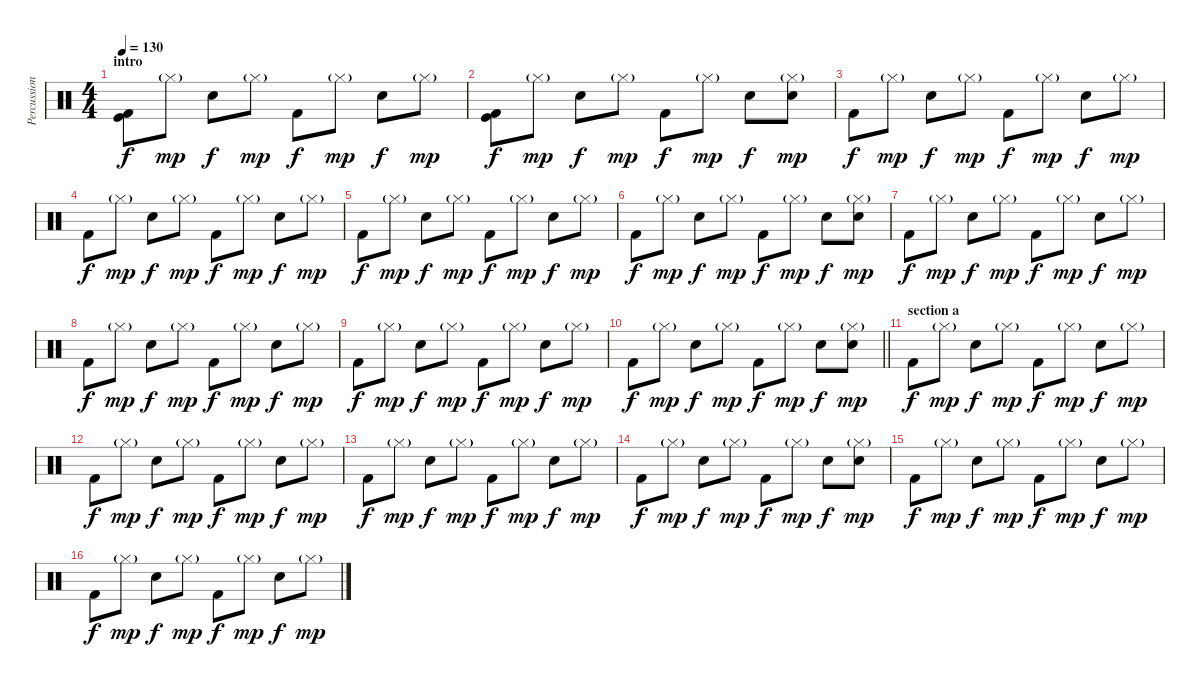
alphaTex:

\track ("Percussion" "Percussion") {instrument percussion}
\staff {score}
\articulation defaults
\ts (4 4)
\section ("" "intro")
\tempo 130
\clef neutral
\ks c
("Kick (hit)" "Kick (hit) 2").8{dy f} "Hi-Hat (closed)"{g}.8{dy mp} "Electric Snare (hit)".8{dy f} "Hi-Hat (closed)"{g}.8{dy mp} "Kick (hit) 2".8{dy f} "Hi-Hat (closed)"{g}.8{dy mp} "Electric Snare (hit)".8{dy f} "Hi-Hat (closed)"{g}.8{dy mp} |
("Kick (hit)" "Kick (hit) 2").8{dy f} "Hi-Hat (closed)"{g}.8{dy mp} "Electric Snare (hit)".8{dy f} "Hi-Hat (closed)"{g}.8{dy mp} "Kick (hit) 2".8{dy f} "Hi-Hat (closed)"{g}.8{dy mp} "Electric Snare (hit)".8{dy f} ("Hi-Hat (closed)"{g} "Electric Snare (hit)").8{dy mp} |
"Kick (hit) 2".8{dy f} "Hi-Hat (closed)"{g}.8{dy mp} "Electric Snare (hit)".8{dy f} "Hi-Hat (closed)"{g}.8{dy mp} "Kick (hit) 2".8{dy f} "Hi-Hat (closed)"{g}.8{dy mp} "Electric Snare (hit)".8{dy f} "Hi-Hat (closed)"{g}.8{dy mp} |
"Kick (hit) 2".8{dy f} "Hi-Hat (closed)"{g}.8{dy mp} "Electric Snare (hit)".8{dy f} "Hi-Hat (closed)"{g}.8{dy mp} "Kick (hit) 2".8{dy f} "Hi-Hat (closed)"{g}.8{dy mp} "Electric Snare (hit)".8{dy f} "Hi-Hat (closed)"{g}.8{dy mp} |
"Kick (hit) 2".8{dy f} "Hi-Hat (closed)"{g}.8{dy mp} "Electric Snare (hit)".8{dy f} "Hi-Hat (closed)"{g}.8{dy mp} "Kick (hit) 2".8{dy f} "Hi-Hat (closed)"{g}.8{dy mp} "Electric Snare (hit)".8{dy f} "Hi-Hat (closed)"{g}.8{dy mp} |
"Kick (hit) 2".8{dy f} "Hi-Hat (closed)"{g}.8{dy mp} "Electric Snare (hit)".8{dy f} "Hi-Hat (closed)"{g}.8{dy mp} "Kick (hit) 2".8{dy f} "Hi-Hat (closed)"{g}.8{dy mp} "Electric Snare (hit)".8{dy f} ("Hi-Hat (closed)"{g} "Electric Snare (hit)").8{dy mp} |
"Kick (hit) 2".8{dy f} "Hi-Hat (closed)"{g}.8{dy mp} "Electric Snare (hit)".8{dy f} "Hi-Hat (closed)"{g}.8{dy mp} "Kick (hit) 2".8{dy f} "Hi-Hat (closed)"{g}.8{dy mp} "Electric Snare (hit)".8{dy f} "Hi-Hat (closed)"{g}.8{dy mp} |
"Kick (hit) 2".8{dy f} "Hi-Hat (closed)"{g}.8{dy mp} "Electric Snare (hit)".8{dy f} "Hi-Hat (closed)"{g}.8{dy mp} "Kick (hit) 2".8{dy f} "Hi-Hat (closed)"{g}.8{dy mp} "Electric Snare (hit)".8{dy f} "Hi-Hat (closed)"{g}.8{dy mp} |
"Kick (hit) 2".8{dy f} "Hi-Hat (closed)"{g}.8{dy mp} "Electric Snare (hit)".8{dy f} "Hi-Hat (closed)"{g}.8{dy mp} "Kick (hit) 2".8{dy f} "Hi-Hat (closed)"{g}.8{dy mp} "Electric Snare (hit)".8{dy f} "Hi-Hat (closed)"{g}.8{dy mp} |
\barLineRight lightlight "Kick (hit) 2".8{dy f} "Hi-Hat (closed)"{g}.8{dy mp} "Electric Snare (hit)".8{dy f} "Hi-Hat (closed)"{g}.8{dy mp} "Kick (hit) 2".8{dy f} "Hi-Hat (closed)"{g}.8{dy mp} "Electric Snare (hit)".8{dy f}
("Hi-Hat (closed)"{g} "Electric Snare (hit)").8{dy mp} |
\section ("" "section a")
"Kick (hit) 2".8{dy f} "Hi-Hat (closed)"{g}.8{dy mp} "Electric Snare (hit)".8{dy f} "Hi-Hat (closed)"{g}.8{dy mp} "Kick (hit) 2".8{dy f} "Hi-Hat (closed)"{g}.8{dy mp} "Electric Snare (hit)".8{dy f} "Hi-Hat (closed)"{g}.8{dy mp} |
"Kick (hit) 2".8{dy f} "Hi-Hat (closed)"{g}.8{dy mp} "Electric Snare (hit)".8{dy f} "Hi-Hat (closed)"{g}.8{dy mp} "Kick (hit) 2".8{dy f} "Hi-Hat (closed)"{g}.8{dy mp} "Electric Snare (hit)".8{dy f} "Hi-Hat (closed)"{g}.8{dy mp} |
"Kick (hit) 2".8{dy f} "Hi-Hat (closed)"{g}.8{dy mp} "Electric Snare (hit)".8{dy f} "Hi-Hat (closed)"{g}.8{dy mp} "Kick (hit) 2".8{dy f} "Hi-Hat (closed)"{g}.8{dy mp} "Electric Snare (hit)".8{dy f} "Hi-Hat (closed)"{g}.8{dy mp} |
"Kick (hit) 2".8{dy f} "Hi-Hat (closed)"{g}.8{dy mp} "Electric Snare (hit)".8{dy f} "Hi-Hat (closed)"{g}.8{dy mp} "Kick (hit) 2".8{dy f} "Hi-Hat (closed)"{g}.8{dy mp} "Electric Snare (hit)".8{dy f} ("Hi-Hat (closed)"{g} "Electric Snare (hit)").8{dy mp} |
"Kick (hit) 2".8{dy f} "Hi-Hat (closed)"{g}.8{dy mp} "Electric Snare (hit)".8{dy f} "Hi-Hat (closed)"{g}.8{dy mp} "Kick (hit) 2".8{dy f} "Hi-Hat (closed)"{g}.8{dy mp} "Electric Snare (hit)".8{dy f} "Hi-Hat (closed)"{g}.8{dy mp} |
"Kick (hit) 2".8{dy f} "Hi-Hat (closed)"{g}.8{dy mp} "Electric Snare (hit)".8{dy f} "Hi-Hat (closed)"{g}.8{dy mp} "Kick (hit) 2".8{dy f} "Hi-Hat (closed)"{g}.8{dy mp} "Electric Snare (hit)".8{dy f} "Hi-Hat (closed)"{g}.8{dy mp}
